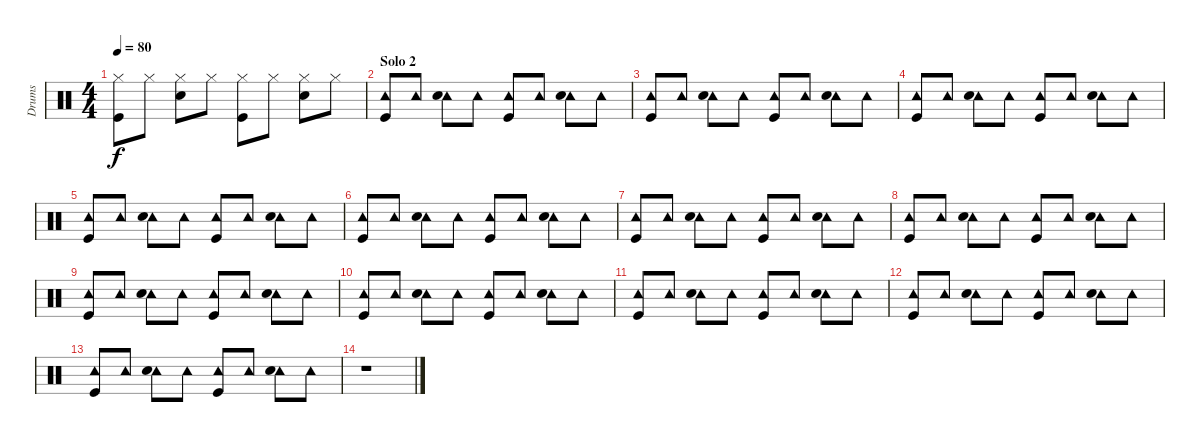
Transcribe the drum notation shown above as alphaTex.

\track ("Drums" "Drums") {instrument percussion}
\staff {score}
\articulation defaults
\ts (4 4)
\tempo 80
\clef neutral
\ks c
("Hi-Hat (closed)" "Kick (hit)").8{dy f} "Hi-Hat (closed)".8 ("Hi-Hat (closed)" "Snare (hit) 2").8 "Hi-Hat (closed)".8 ("Hi-Hat (closed)" "Kick (hit)").8 "Hi-Hat (closed)".8 ("Hi-Hat (closed)" "Snare (hit) 2").8 "Hi-Hat (closed)".8 |
\section ("" "Solo 2")
("Tambourine (hit)" "Kick (hit)").8 "Tambourine (hit)".8 ("Tambourine (hit)" "Snare (hit) 2").8 "Tambourine (hit)".8 ("Tambourine (hit)" "Kick (hit)").8 "Tambourine (hit)".8 ("Tambourine (hit)" "Snare (hit) 2").8 "Tambourine (hit)".8 |
("Tambourine (hit)" "Kick (hit)").8 "Tambourine (hit)".8 ("Tambourine (hit)" "Snare (hit) 2").8 "Tambourine (hit)".8 ("Tambourine (hit)" "Kick (hit)").8 "Tambourine (hit)".8 ("Tambourine (hit)" "Snare (hit) 2").8 "Tambourine (hit)".8 |
("Tambourine (hit)" "Kick (hit)").8 "Tambourine (hit)".8 ("Tambourine (hit)" "Snare (hit) 2").8 "Tambourine (hit)".8 ("Tambourine (hit)" "Kick (hit)").8 "Tambourine (hit)".8 ("Tambourine (hit)" "Snare (hit) 2").8 "Tambourine (hit)".8 |
("Tambourine (hit)" "Kick (hit)").8 "Tambourine (hit)".8 ("Tambourine (hit)" "Snare (hit) 2").8 "Tambourine (hit)".8 ("Tambourine (hit)" "Kick (hit)").8 "Tambourine (hit)".8 ("Tambourine (hit)" "Snare (hit) 2").8 "Tambourine (hit)".8 |
("Tambourine (hit)" "Kick (hit)").8 "Tambourine (hit)".8 ("Tambourine (hit)" "Snare (hit) 2").8 "Tambourine (hit)".8 ("Tambourine (hit)" "Kick (hit)").8 "Tambourine (hit)".8 ("Tambourine (hit)" "Snare (hit) 2").8 "Tambourine (hit)".8 |
("Tambourine (hit)" "Kick (hit)").8 "Tambourine (hit)".8 ("Tambourine (hit)" "Snare (hit) 2").8 "Tambourine (hit)".8 ("Tambourine (hit)" "Kick (hit)").8 "Tambourine (hit)".8 ("Tambourine (hit)" "Snare (hit) 2").8 "Tambourine (hit)".8 |
("Tambourine (hit)" "Kick (hit)").8 "Tambourine (hit)".8 ("Tambourine (hit)" "Snare (hit) 2").8 "Tambourine (hit)".8 ("Tambourine (hit)" "Kick (hit)").8 "Tambourine (hit)".8 ("Tambourine (hit)" "Snare (hit) 2").8 "Tambourine (hit)".8 |
("Tambourine (hit)" "Kick (hit)").8 "Tambourine (hit)".8 ("Tambourine (hit)" "Snare (hit) 2").8 "Tambourine (hit)".8 ("Tambourine (hit)" "Kick (hit)").8 "Tambourine (hit)".8 ("Tambourine (hit)" "Snare (hit) 2").8 "Tambourine (hit)".8 |
("Tambourine (hit)" "Kick (hit)").8 "Tambourine (hit)".8 ("Tambourine (hit)" "Snare (hit) 2").8 "Tambourine (hit)".8 ("Tambourine (hit)" "Kick (hit)").8 "Tambourine (hit)".8 ("Tambourine (hit)" "Snare (hit) 2").8 "Tambourine (hit)".8 |
("Tambourine (hit)" "Kick (hit)").8 "Tambourine (hit)".8 ("Tambourine (hit)" "Snare (hit) 2").8 "Tambourine (hit)".8 ("Tambourine (hit)" "Kick (hit)").8 "Tambourine (hit)".8 ("Tambourine (hit)" "Snare (hit) 2").8 "Tambourine (hit)".8 |
("Tambourine (hit)" "Kick (hit)").8 "Tambourine (hit)".8 ("Tambourine (hit)" "Snare (hit) 2").8 "Tambourine (hit)".8 ("Tambourine (hit)" "Kick (hit)").8 "Tambourine (hit)".8 ("Tambourine (hit)" "Snare (hit) 2").8 "Tambourine (hit)".8 |
("Tambourine (hit)" "Kick (hit)").8 "Tambourine (hit)".8 ("Tambourine (hit)" "Snare (hit) 2").8 "Tambourine (hit)".8 ("Tambourine (hit)" "Kick (hit)").8 "Tambourine (hit)".8 ("Tambourine (hit)" "Snare (hit) 2").8 "Tambourine (hit)".8 |
r.1
